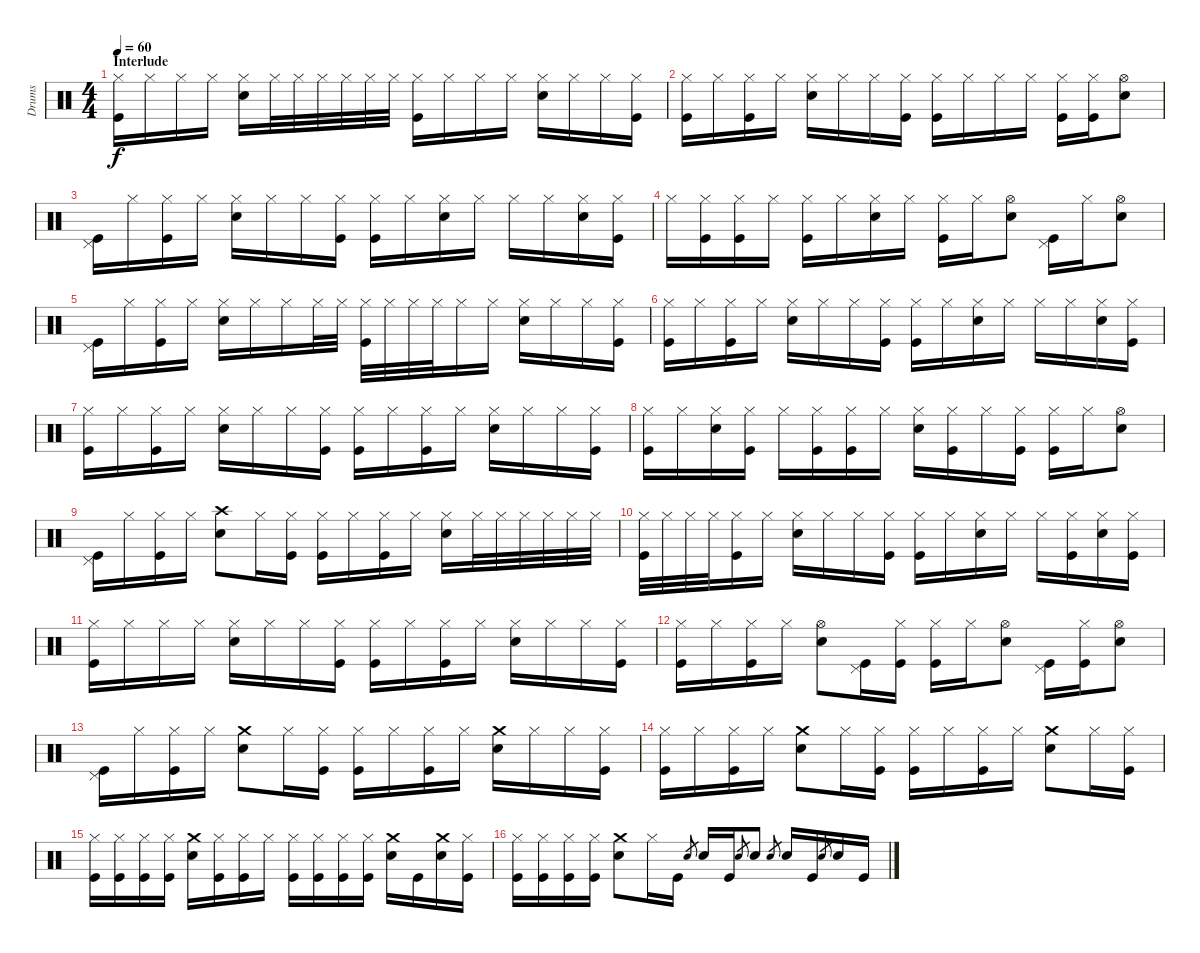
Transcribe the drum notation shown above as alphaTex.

\track ("Drums" "Drums") {instrument percussion}
\staff {score}
\articulation defaults
\ts (4 4)
\section ("" "Interlude")
\tempo 60
\clef neutral
\ks c
("Kick (hit)" "Hi-Hat (closed)").16{dy f} "Hi-Hat (closed)".16 "Hi-Hat (closed)".16 "Hi-Hat (closed)".16 ("Electric Snare (hit)" "Hi-Hat (closed)").16 "Hi-Hat (closed)".32 "Hi-Hat (closed)".32 "Hi-Hat (closed)".32 "Hi-Hat (closed)".32 "Hi-Hat (closed)".32 "Hi-Hat (closed)".32 ("Kick (hit)" "Hi-Hat (closed)").16 "Hi-Hat (closed)".16 "Hi-Hat (closed)".16 "Hi-Hat (closed)".16 ("Electric Snare (hit)" "Hi-Hat (closed)").16 "Hi-Hat (closed)".16 "Hi-Hat (closed)".16 ("Kick (hit)" "Hi-Hat (closed)").16 |
("Kick (hit)" "Hi-Hat (closed)").16 "Hi-Hat (closed)".16 ("Kick (hit)" "Hi-Hat (closed)").16 "Hi-Hat (closed)".16 ("Electric Snare (hit)" "Hi-Hat (closed)").16 "Hi-Hat (closed)".16 "Hi-Hat (closed)".16 ("Kick (hit)" "Hi-Hat (closed)").16 ("Kick (hit)" "Hi-Hat (closed)").16 "Hi-Hat (closed)".16 "Hi-Hat (closed)".16 "Hi-Hat (closed)".16 ("Kick (hit)" "Hi-Hat (closed)").16 ("Kick (hit)" "Hi-Hat (closed)").16 ("Electric Snare (hit)" "Hi-Hat (open)").8 |
("Kick (hit)" "Pedal Hi-Hat (hit)").16 "Hi-Hat (closed)".16 ("Kick (hit)" "Hi-Hat (closed)").16 "Hi-Hat (closed)".16 ("Electric Snare (hit)" "Hi-Hat (closed)").16 "Hi-Hat (closed)".16 "Hi-Hat (closed)".16 ("Kick (hit)" "Hi-Hat (closed)").16 ("Kick (hit)" "Hi-Hat (closed)").16 "Hi-Hat (closed)".16 ("Electric Snare (hit)" "Hi-Hat (closed)").16 "Hi-Hat (closed)".16 "Hi-Hat (closed)".16 "Hi-Hat (closed)".16 ("Electric Snare (hit)" "Hi-Hat (closed)").16 ("Kick (hit)" "Hi-Hat (closed)").16 |
"Hi-Hat (closed)".16 ("Kick (hit)" "Hi-Hat (closed)").16 ("Kick (hit)" "Hi-Hat (closed)").16 "Hi-Hat (closed)".16 ("Kick (hit)" "Hi-Hat (closed)").16 "Hi-Hat (closed)".16 ("Electric Snare (hit)" "Hi-Hat (closed)").16 "Hi-Hat (closed)".16 ("Kick (hit)" "Hi-Hat (closed)").16 "Hi-Hat (closed)".16 ("Electric Snare (hit)" "Hi-Hat (open)").8 ("Kick (hit)" "Pedal Hi-Hat (hit)").16 "Hi-Hat (closed)".16 ("Electric Snare (hit)" "Hi-Hat (open)").8 |
("Kick (hit)" "Pedal Hi-Hat (hit)").16 "Hi-Hat (closed)".16 ("Kick (hit)" "Hi-Hat (closed)").16 "Hi-Hat (closed)".16 ("Electric Snare (hit)" "Hi-Hat (closed)").16 "Hi-Hat (closed)".16 "Hi-Hat (closed)".16 "Hi-Hat (closed)".32 "Hi-Hat (closed)".32 ("Kick (hit)" "Hi-Hat (closed)").32 "Hi-Hat (closed)".32 "Hi-Hat (closed)".32 "Hi-Hat (closed)".32 "Hi-Hat (closed)".16 "Hi-Hat (closed)".16 ("Electric Snare (hit)" "Hi-Hat (closed)").16 "Hi-Hat (closed)".16 "Hi-Hat (closed)".16 ("Kick (hit)" "Hi-Hat (closed)").16 |
("Kick (hit)" "Hi-Hat (closed)").16 "Hi-Hat (closed)".16 ("Kick (hit)" "Hi-Hat (closed)").16 "Hi-Hat (closed)".16 ("Electric Snare (hit)" "Hi-Hat (closed)").16 "Hi-Hat (closed)".16 "Hi-Hat (closed)".16 ("Kick (hit)" "Hi-Hat (closed)").16 ("Kick (hit)" "Hi-Hat (closed)").16 "Hi-Hat (closed)".16 ("Electric Snare (hit)" "Hi-Hat (closed)").16 "Hi-Hat (closed)".16 "Hi-Hat (closed)".16 "Hi-Hat (closed)".16 ("Electric Snare (hit)" "Hi-Hat (closed)").16 ("Kick (hit)" "Hi-Hat (closed)").16 |
("Kick (hit)" "Hi-Hat (closed)").16 "Hi-Hat (closed)".16 ("Kick (hit)" "Hi-Hat (closed)").16 "Hi-Hat (closed)".16 ("Electric Snare (hit)" "Hi-Hat (closed)").16 "Hi-Hat (closed)".16 "Hi-Hat (closed)".16 ("Kick (hit)" "Hi-Hat (closed)").16 ("Kick (hit)" "Hi-Hat (closed)").16 "Hi-Hat (closed)".16 ("Kick (hit)" "Hi-Hat (closed)").16 "Hi-Hat (closed)".16 ("Electric Snare (hit)" "Hi-Hat (closed)").16 "Hi-Hat (closed)".16 "Hi-Hat (closed)".16 ("Kick (hit)" "Hi-Hat (closed)").16 |
("Kick (hit)" "Hi-Hat (closed)").16 "Hi-Hat (closed)".16 ("Electric Snare (hit)" "Hi-Hat (closed)").16 ("Kick (hit)" "Hi-Hat (closed)").16 "Hi-Hat (closed)".16 ("Kick (hit)" "Hi-Hat (closed)").16 ("Kick (hit)" "Hi-Hat (closed)").16 "Hi-Hat (closed)".16 ("Electric Snare (hit)" "Hi-Hat (closed)").16 ("Kick (hit)" "Hi-Hat (closed)").16 "Hi-Hat (closed)".16 ("Kick (hit)" "Hi-Hat (closed)").16 ("Kick (hit)" "Hi-Hat (closed)").16 "Hi-Hat (closed)".16 ("Electric Snare (hit)" "Hi-Hat (open)").8 |
("Kick (hit)" "Pedal Hi-Hat (hit)").16 "Hi-Hat (closed)".16 ("Kick (hit)" "Hi-Hat (closed)").16 "Hi-Hat (closed)".16 ("Electric Snare (hit)" "Crash high (hit)").8 "Hi-Hat (closed)".16 ("Kick (hit)" "Hi-Hat (closed)").16 ("Kick (hit)" "Hi-Hat (closed)").16 "Hi-Hat (closed)".16 ("Kick (hit)" "Hi-Hat (closed)").16 "Hi-Hat (closed)".16 ("Electric Snare (hit)" "Hi-Hat (closed)").16 "Hi-Hat (closed)".32 "Hi-Hat (closed)".32 "Hi-Hat (closed)".32 "Hi-Hat (closed)".32 "Hi-Hat (closed)".32 "Hi-Hat (closed)".32 |
("Kick (hit)" "Hi-Hat (closed)").32 "Hi-Hat (closed)".32 "Hi-Hat (closed)".32 "Hi-Hat (closed)".32 ("Kick (hit)" "Hi-Hat (closed)").16 "Hi-Hat (closed)".16 ("Electric Snare (hit)" "Hi-Hat (closed)").16 "Hi-Hat (closed)".16 "Hi-Hat (closed)".16 ("Kick (hit)" "Hi-Hat (closed)").16 ("Kick (hit)" "Hi-Hat (closed)").16 "Hi-Hat (closed)".16 ("Electric Snare (hit)" "Hi-Hat (closed)").16 "Hi-Hat (closed)".16 "Hi-Hat (closed)".16 ("Kick (hit)" "Hi-Hat (closed)").16 ("Electric Snare (hit)" "Hi-Hat (closed)").16 ("Kick (hit)" "Hi-Hat (closed)").16 |
("Kick (hit)" "Hi-Hat (closed)").16 "Hi-Hat (closed)".16 "Hi-Hat (closed)".16 "Hi-Hat (closed)".16 ("Electric Snare (hit)" "Hi-Hat (closed)").16 "Hi-Hat (closed)".16 "Hi-Hat (closed)".16 ("Kick (hit)" "Hi-Hat (closed)").16 ("Kick (hit)" "Hi-Hat (closed)").16 "Hi-Hat (closed)".16 ("Kick (hit)" "Hi-Hat (closed)").16 "Hi-Hat (closed)".16 ("Electric Snare (hit)" "Hi-Hat (closed)").16 "Hi-Hat (closed)".16 "Hi-Hat (closed)".16 ("Kick (hit)" "Hi-Hat (closed)").16 |
("Kick (hit)" "Hi-Hat (closed)").16 "Hi-Hat (closed)".16 ("Kick (hit)" "Hi-Hat (closed)").16 "Hi-Hat (closed)".16 ("Electric Snare (hit)" "Hi-Hat (open)").8 ("Kick (hit)" "Pedal Hi-Hat (hit)").16 ("Kick (hit)" "Hi-Hat (closed)").16 ("Kick (hit)" "Hi-Hat (closed)").16 "Hi-Hat (closed)".16 ("Electric Snare (hit)" "Hi-Hat (open)").8 ("Kick (hit)" "Pedal Hi-Hat (hit)").16 ("Kick (hit)" "Hi-Hat (closed)").16 ("Electric Snare (hit)" "Hi-Hat (open)").8 |
("Kick (hit)" "Pedal Hi-Hat (hit)").16 "Hi-Hat (closed)".16 ("Kick (hit)" "Hi-Hat (closed)").16 "Hi-Hat (closed)".16 ("Electric Snare (hit)" "Crash medium (hit)").8 "Hi-Hat (closed)".16 ("Kick (hit)" "Hi-Hat (closed)").16 ("Kick (hit)" "Hi-Hat (closed)").16 "Hi-Hat (closed)".16 ("Kick (hit)" "Hi-Hat (closed)").16 "Hi-Hat (closed)".16 ("Electric Snare (hit)" "Crash medium (hit)").16 "Hi-Hat (closed)".16 "Hi-Hat (closed)".16 ("Kick (hit)" "Hi-Hat (closed)").16 |
("Kick (hit)" "Hi-Hat (closed)").16 "Hi-Hat (closed)".16 ("Kick (hit)" "Hi-Hat (closed)").16 "Hi-Hat (closed)".16 ("Electric Snare (hit)" "Crash medium (hit)").8 "Hi-Hat (closed)".16 ("Kick (hit)" "Hi-Hat (closed)").16 ("Kick (hit)" "Hi-Hat (closed)").16 "Hi-Hat (closed)".16 ("Kick (hit)" "Hi-Hat (closed)").16 "Hi-Hat (closed)".16 ("Electric Snare (hit)" "Crash medium (hit)").8 "Hi-Hat (closed)".16 ("Kick (hit)" "Hi-Hat (closed)").16 |
("Kick (hit)" "Hi-Hat (closed)").16 ("Kick (hit)" "Hi-Hat (closed)").16 ("Kick (hit)" "Hi-Hat (closed)").16 ("Kick (hit)" "Hi-Hat (closed)").16 ("Electric Snare (hit)" "Crash medium (hit)").16 ("Kick (hit)" "Hi-Hat (closed)").16 ("Kick (hit)" "Hi-Hat (closed)").16 "Hi-Hat (closed)".16 ("Kick (hit)" "Hi-Hat (closed)").16 ("Kick (hit)" "Hi-Hat (closed)").16 ("Kick (hit)" "Hi-Hat (closed)").16 ("Kick (hit)" "Hi-Hat (closed)").16 ("Electric Snare (hit)" "Crash medium (hit)").16 "Kick (hit)".16 ("Electric Snare (hit)" "Crash medium (hit)").16 ("Kick (hit)" "Hi-Hat (closed)").16 |
("Kick (hit)" "Hi-Hat (closed)").16 ("Kick (hit)" "Hi-Hat (closed)").16 ("Kick (hit)" "Hi-Hat (closed)").16 ("Kick (hit)" "Hi-Hat (closed)").16 ("Electric Snare (hit)" "Crash medium (hit)").8 "Hi-Hat (closed)".16 "Kick (hit)".16 "Electric Snare (hit)".8{gr} "Electric Snare (hit)".16 "Kick (hit)".16 "Electric Snare (hit)".8{gr} "Electric Snare (hit)".8 "Electric Snare (hit)".8{gr} "Electric Snare (hit)".16 "Kick (hit)".16 "Electric Snare (hit)".8{gr} "Electric Snare (hit)".16 "Kick (hit)".16
